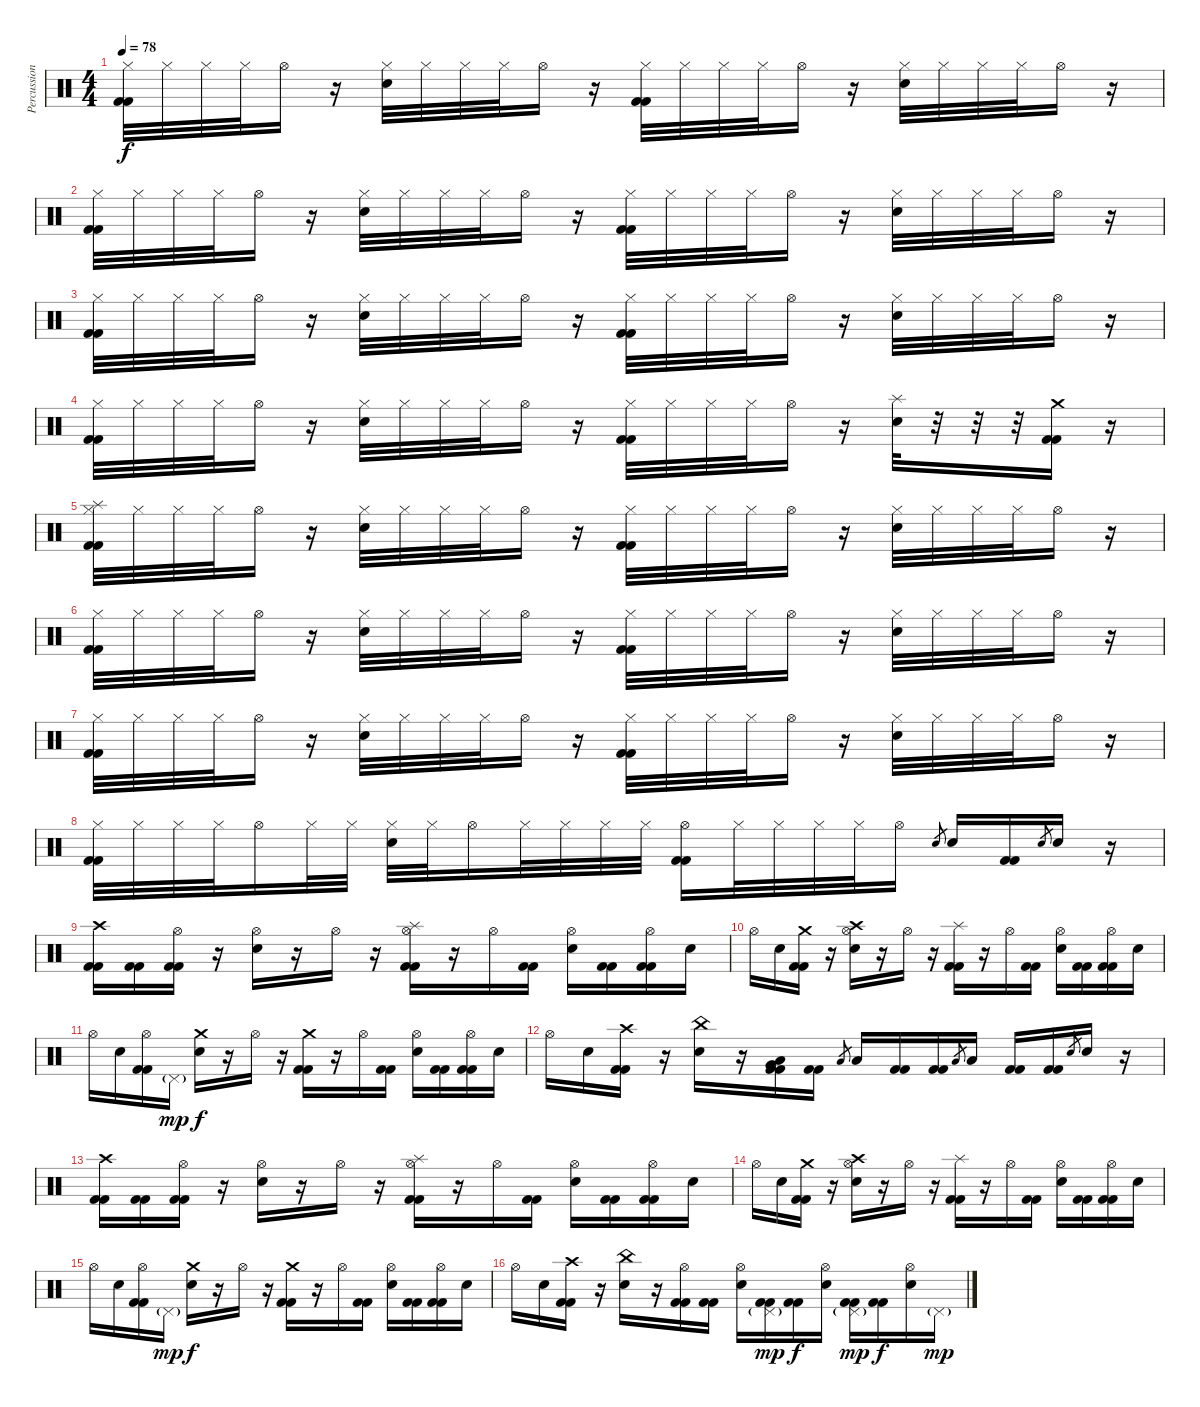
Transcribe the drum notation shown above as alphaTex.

\track ("Percussion" "Percussion") {instrument percussion}
\staff {score}
\articulation defaults
\ts (4 4)
\tempo 78
\clef neutral
\ks c
("Hi-Hat (closed)" "Kick (hit) 2" "Kick (hit) 2").32{dy f} "Hi-Hat (closed)".32 "Hi-Hat (closed)".32 "Hi-Hat (closed)".32 "Hi-Hat (open)".16 r.16 ("Hi-Hat (closed)" "Electric Snare (hit)").32 "Hi-Hat (closed)".32 "Hi-Hat (closed)".32 "Hi-Hat (closed)".32 "Hi-Hat (open)".16 r.16 ("Hi-Hat (closed)" "Kick (hit) 2" "Kick (hit) 2").32 "Hi-Hat (closed)".32 "Hi-Hat (closed)".32 "Hi-Hat (closed)".32 "Hi-Hat (open)".16 r.16 ("Hi-Hat (closed)" "Electric Snare (hit)").32 "Hi-Hat (closed)".32 "Hi-Hat (closed)".32 "Hi-Hat (closed)".32 "Hi-Hat (open)".16 r.16 |
("Hi-Hat (closed)" "Kick (hit) 2" "Kick (hit) 2").32 "Hi-Hat (closed)".32 "Hi-Hat (closed)".32 "Hi-Hat (closed)".32 "Hi-Hat (open)".16 r.16 ("Hi-Hat (closed)" "Electric Snare (hit)").32 "Hi-Hat (closed)".32 "Hi-Hat (closed)".32 "Hi-Hat (closed)".32 "Hi-Hat (open)".16 r.16 ("Hi-Hat (closed)" "Kick (hit) 2" "Kick (hit) 2").32 "Hi-Hat (closed)".32 "Hi-Hat (closed)".32 "Hi-Hat (closed)".32 "Hi-Hat (open)".16 r.16 ("Hi-Hat (closed)" "Electric Snare (hit)").32 "Hi-Hat (closed)".32 "Hi-Hat (closed)".32 "Hi-Hat (closed)".32 "Hi-Hat (open)".16 r.16 |
("Hi-Hat (closed)" "Kick (hit) 2" "Kick (hit) 2").32 "Hi-Hat (closed)".32 "Hi-Hat (closed)".32 "Hi-Hat (closed)".32 "Hi-Hat (open)".16 r.16 ("Hi-Hat (closed)" "Electric Snare (hit)").32 "Hi-Hat (closed)".32 "Hi-Hat (closed)".32 "Hi-Hat (closed)".32 "Hi-Hat (open)".16 r.16 ("Hi-Hat (closed)" "Kick (hit) 2" "Kick (hit) 2").32 "Hi-Hat (closed)".32 "Hi-Hat (closed)".32 "Hi-Hat (closed)".32 "Hi-Hat (open)".16 r.16 ("Hi-Hat (closed)" "Electric Snare (hit)").32 "Hi-Hat (closed)".32 "Hi-Hat (closed)".32 "Hi-Hat (closed)".32 "Hi-Hat (open)".16 r.16 |
("Hi-Hat (closed)" "Kick (hit) 2" "Kick (hit) 2").32 "Hi-Hat (closed)".32 "Hi-Hat (closed)".32 "Hi-Hat (closed)".32 "Hi-Hat (open)".16 r.16 ("Hi-Hat (closed)" "Electric Snare (hit)").32 "Hi-Hat (closed)".32 "Hi-Hat (closed)".32 "Hi-Hat (closed)".32 "Hi-Hat (open)".16 r.16 ("Hi-Hat (closed)" "Kick (hit) 2" "Kick (hit) 2").32 "Hi-Hat (closed)".32 "Hi-Hat (closed)".32 "Hi-Hat (closed)".32 "Hi-Hat (open)".16 r.16 ("Splash (hit)" "Electric Snare (hit)").32 r.32 r.32 r.32 ("Crash medium (hit)" "Kick (hit) 2" "Kick (hit) 2").16 r.16 |
("Splash (hit)" "Hi-Hat (closed)" "Kick (hit) 2" "Kick (hit) 2").32 "Hi-Hat (closed)".32 "Hi-Hat (closed)".32 "Hi-Hat (closed)".32 "Hi-Hat (open)".16 r.16 ("Hi-Hat (closed)" "Electric Snare (hit)").32 "Hi-Hat (closed)".32 "Hi-Hat (closed)".32 "Hi-Hat (closed)".32 "Hi-Hat (open)".16 r.16 ("Hi-Hat (closed)" "Kick (hit) 2" "Kick (hit) 2").32 "Hi-Hat (closed)".32 "Hi-Hat (closed)".32 "Hi-Hat (closed)".32 "Hi-Hat (open)".16 r.16 ("Hi-Hat (closed)" "Electric Snare (hit)").32 "Hi-Hat (closed)".32 "Hi-Hat (closed)".32 "Hi-Hat (closed)".32 "Hi-Hat (open)".16 r.16 |
("Hi-Hat (closed)" "Kick (hit) 2" "Kick (hit) 2").32 "Hi-Hat (closed)".32 "Hi-Hat (closed)".32 "Hi-Hat (closed)".32 "Hi-Hat (open)".16 r.16 ("Hi-Hat (closed)" "Electric Snare (hit)").32 "Hi-Hat (closed)".32 "Hi-Hat (closed)".32 "Hi-Hat (closed)".32 "Hi-Hat (open)".16 r.16 ("Hi-Hat (closed)" "Kick (hit) 2" "Kick (hit) 2").32 "Hi-Hat (closed)".32 "Hi-Hat (closed)".32 "Hi-Hat (closed)".32 "Hi-Hat (open)".16 r.16 ("Hi-Hat (closed)" "Electric Snare (hit)").32 "Hi-Hat (closed)".32 "Hi-Hat (closed)".32 "Hi-Hat (closed)".32 "Hi-Hat (open)".16 r.16 |
("Hi-Hat (closed)" "Kick (hit) 2" "Kick (hit) 2").32 "Hi-Hat (closed)".32 "Hi-Hat (closed)".32 "Hi-Hat (closed)".32 "Hi-Hat (open)".16 r.16 ("Hi-Hat (closed)" "Electric Snare (hit)").32 "Hi-Hat (closed)".32 "Hi-Hat (closed)".32 "Hi-Hat (closed)".32 "Hi-Hat (open)".16 r.16 ("Hi-Hat (closed)" "Kick (hit) 2" "Kick (hit) 2").32 "Hi-Hat (closed)".32 "Hi-Hat (closed)".32 "Hi-Hat (closed)".32 "Hi-Hat (open)".16 r.16 ("Hi-Hat (closed)" "Electric Snare (hit)").32 "Hi-Hat (closed)".32 "Hi-Hat (closed)".32 "Hi-Hat (closed)".32 "Hi-Hat (open)".16 r.16 |
("Hi-Hat (closed)" "Kick (hit) 2" "Kick (hit) 2").32 "Hi-Hat (closed)".32 "Hi-Hat (closed)".32 "Hi-Hat (closed)".32 "Hi-Hat (open)".16 "Hi-Hat (closed)".32 "Hi-Hat (closed)".32 ("Hi-Hat (closed)" "Electric Snare (hit)").32 "Hi-Hat (closed)".32 "Hi-Hat (open)".16 "Hi-Hat (closed)".32 "Hi-Hat (closed)".32 "Hi-Hat (closed)".32 "Hi-Hat (closed)".32 ("Hi-Hat (open)" "Kick (hit) 2" "Kick (hit) 2").16 "Hi-Hat (closed)".32 "Hi-Hat (closed)".32 "Hi-Hat (closed)".32 "Hi-Hat (closed)".32 "Hi-Hat (open)".16 "Electric Snare (hit)".8{gr} "Electric Snare (hit)".16 ("Kick (hit) 2" "Kick (hit) 2").16 "Electric Snare (hit)".8{gr} "Electric Snare (hit)".16 r.16 |
("Crash high (hit)" "Kick (hit) 2" "Kick (hit) 2").16 ("Kick (hit) 2" "Kick (hit) 2").16 ("Hi-Hat (open)" "Kick (hit) 2" "Kick (hit) 2").16 r.16 ("Hi-Hat (open)" "Electric Snare (hit)").16 r.16 "Hi-Hat (open)".16 r.16 ("Splash (hit)" "Hi-Hat (open)" "Kick (hit) 2" "Kick (hit) 2").16 r.16 "Hi-Hat (open)".16 ("Kick (hit) 2" "Kick (hit) 2").16 ("Hi-Hat (open)" "Electric Snare (hit)").16 ("Kick (hit) 2" "Kick (hit) 2").16 ("Hi-Hat (open)" "Kick (hit) 2" "Kick (hit) 2").16 "Electric Snare (hit)".16 |
"Hi-Hat (open)".16 "Electric Snare (hit)".16 ("Crash medium (hit)" "Kick (hit) 2" "Kick (hit) 2").16 r.16 ("Crash high (hit)" "Hi-Hat (open)" "Electric Snare (hit)").16 r.16 "Hi-Hat (open)".16 r.16 ("Splash (hit)" "Kick (hit) 2" "Kick (hit) 2").16 r.16 "Hi-Hat (open)".16 ("Kick (hit) 2" "Kick (hit) 2").16 ("Hi-Hat (open)" "Electric Snare (hit)").16 ("Kick (hit) 2" "Kick (hit) 2").16 ("Hi-Hat (open)" "Kick (hit) 2" "Kick (hit) 2").16 "Electric Snare (hit)".16 |
"Hi-Hat (open)".16 "Electric Snare (hit)".16 ("Hi-Hat (open)" "Kick (hit) 2" "Kick (hit) 2").16 "Pedal Hi-Hat (hit)"{g}.16{dy mp} ("Crash medium (hit)" "Electric Snare (hit)").16{dy f} r.16 "Hi-Hat (open)".16 r.16 ("Crash medium (hit)" "Kick (hit) 2" "Kick (hit) 2").16 r.16 "Hi-Hat (open)".16 ("Kick (hit) 2" "Kick (hit) 2").16 ("Hi-Hat (open)" "Electric Snare (hit)").16 ("Kick (hit) 2" "Kick (hit) 2").16 ("Hi-Hat (open)" "Kick (hit) 2" "Kick (hit) 2").16 "Electric Snare (hit)".16 |
"Hi-Hat (open)".16 "Electric Snare (hit)".16 ("Crash high (hit)" "Kick (hit) 2" "Kick (hit) 2").16 r.16 ("China (hit)" "Electric Snare (hit)").16 r.16 ("Very Low Tom (hit)" "Low Floor Tom (hit)" "Kick (hit) 2" "Kick (hit) 2").16 ("Kick (hit) 2" "Kick (hit) 2").16 "Low Floor Tom (hit)".8{gr} "Low Floor Tom (hit)".16 ("Kick (hit) 2" "Kick (hit) 2").16 ("Kick (hit) 2" "Kick (hit) 2").16 "Low Tom (hit)".8{gr} "Low Tom (hit)".16 ("Kick (hit) 2" "Kick (hit) 2").16 ("Kick (hit) 2" "Kick (hit) 2").16 "Electric Snare (hit)".8{gr} "Electric Snare (hit)".16 r.16 |
("Crash high (hit)" "Kick (hit) 2" "Kick (hit) 2").16 ("Kick (hit) 2" "Kick (hit) 2").16 ("Hi-Hat (open)" "Kick (hit) 2" "Kick (hit) 2").16 r.16 ("Hi-Hat (open)" "Electric Snare (hit)").16 r.16 "Hi-Hat (open)".16 r.16 ("Splash (hit)" "Hi-Hat (open)" "Kick (hit) 2" "Kick (hit) 2").16 r.16 "Hi-Hat (open)".16 ("Kick (hit) 2" "Kick (hit) 2").16 ("Hi-Hat (open)" "Electric Snare (hit)").16 ("Kick (hit) 2" "Kick (hit) 2").16 ("Hi-Hat (open)" "Kick (hit) 2" "Kick (hit) 2").16 "Electric Snare (hit)".16 |
"Hi-Hat (open)".16 "Electric Snare (hit)".16 ("Crash medium (hit)" "Kick (hit) 2" "Kick (hit) 2").16 r.16 ("Crash high (hit)" "Hi-Hat (open)" "Electric Snare (hit)").16 r.16 "Hi-Hat (open)".16 r.16 ("Splash (hit)" "Kick (hit) 2" "Kick (hit) 2").16 r.16 "Hi-Hat (open)".16 ("Kick (hit) 2" "Kick (hit) 2").16 ("Hi-Hat (open)" "Electric Snare (hit)").16 ("Kick (hit) 2" "Kick (hit) 2").16 ("Hi-Hat (open)" "Kick (hit) 2" "Kick (hit) 2").16 "Electric Snare (hit)".16 |
"Hi-Hat (open)".16 "Electric Snare (hit)".16 ("Hi-Hat (open)" "Kick (hit) 2" "Kick (hit) 2").16 "Pedal Hi-Hat (hit)"{g}.16{dy mp} ("Crash medium (hit)" "Electric Snare (hit)").16{dy f} r.16 "Hi-Hat (open)".16 r.16 ("Crash medium (hit)" "Kick (hit) 2" "Kick (hit) 2").16 r.16 "Hi-Hat (open)".16 ("Kick (hit) 2" "Kick (hit) 2").16 ("Hi-Hat (open)" "Electric Snare (hit)").16 ("Kick (hit) 2" "Kick (hit) 2").16 ("Hi-Hat (open)" "Kick (hit) 2" "Kick (hit) 2").16 "Electric Snare (hit)".16 |
"Hi-Hat (open)".16 "Electric Snare (hit)".16 ("Crash high (hit)" "Kick (hit) 2" "Kick (hit) 2").16 r.16 ("China (hit)" "Electric Snare (hit)").16 r.16 ("Hi-Hat (open)" "Kick (hit) 2" "Kick (hit) 2").16 ("Kick (hit) 2" "Kick (hit) 2").16 ("Hi-Hat (open)" "Electric Snare (hit)").16 ("Pedal Hi-Hat (hit)"{g} "Kick (hit) 2" "Kick (hit) 2").16{dy mp} ("Kick (hit) 2" "Kick (hit) 2").16{dy f} ("Hi-Hat (open)" "Electric Snare (hit)").16 ("Pedal Hi-Hat (hit)"{g} "Kick (hit) 2" "Kick (hit) 2").16{dy mp} ("Kick (hit) 2" "Kick (hit) 2").16{dy f} ("Hi-Hat (open)" "Electric Snare (hit)").16 "Pedal Hi-Hat (hit)"{g}.16{dy mp}
